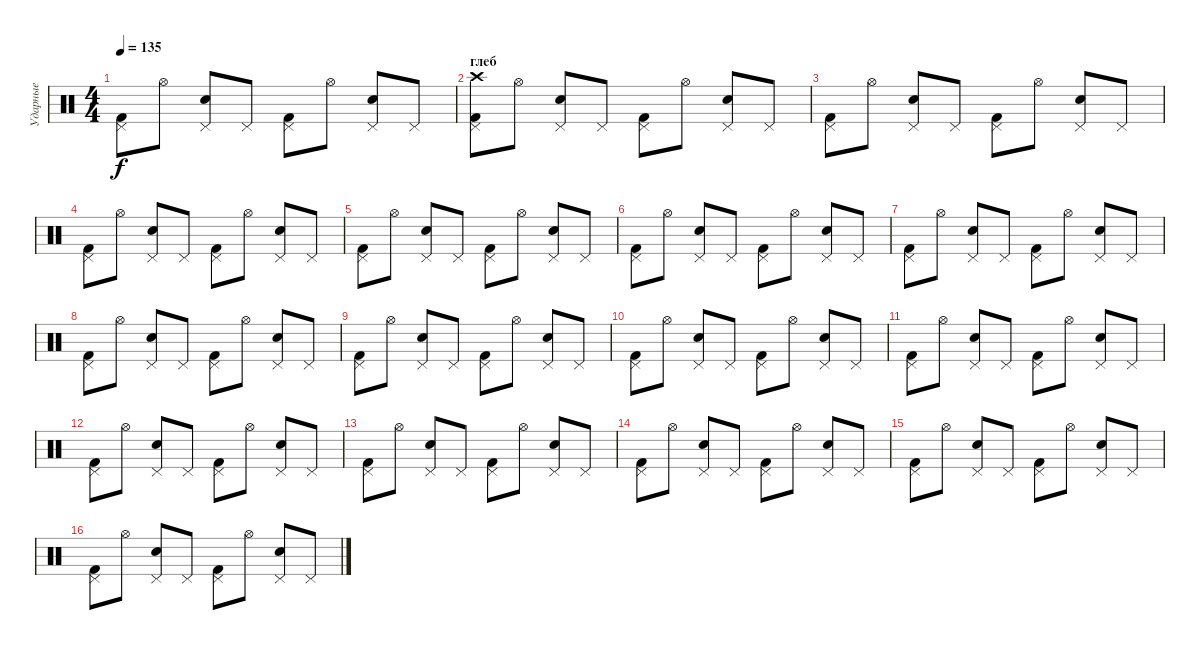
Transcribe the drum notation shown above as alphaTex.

\track ("Ударные" "Ударные") {instrument percussion}
\staff {score}
\articulation defaults
\ts (4 4)
\tempo 135
\clef neutral
\ks c
("Pedal Hi-Hat (hit)" "Kick (hit) 2").8{dy f} "Hi-Hat (open)".8 ("Pedal Hi-Hat (hit)" "Snare (hit) 2").8 "Pedal Hi-Hat (hit)".8 ("Pedal Hi-Hat (hit)" "Kick (hit) 2").8 "Hi-Hat (open)".8 ("Pedal Hi-Hat (hit)" "Snare (hit) 2").8 "Pedal Hi-Hat (hit)".8 |
\section ("" "глеб")
("Pedal Hi-Hat (hit)" "Kick (hit) 2" "Crash high (hit)").8 "Hi-Hat (open)".8 ("Pedal Hi-Hat (hit)" "Snare (hit) 2").8 "Pedal Hi-Hat (hit)".8 ("Pedal Hi-Hat (hit)" "Kick (hit) 2").8 "Hi-Hat (open)".8 ("Pedal Hi-Hat (hit)" "Snare (hit) 2").8 "Pedal Hi-Hat (hit)".8 |
("Pedal Hi-Hat (hit)" "Kick (hit) 2").8 "Hi-Hat (open)".8 ("Pedal Hi-Hat (hit)" "Snare (hit) 2").8 "Pedal Hi-Hat (hit)".8 ("Pedal Hi-Hat (hit)" "Kick (hit) 2").8 "Hi-Hat (open)".8 ("Pedal Hi-Hat (hit)" "Snare (hit) 2").8 "Pedal Hi-Hat (hit)".8 |
("Pedal Hi-Hat (hit)" "Kick (hit) 2").8 "Hi-Hat (open)".8 ("Pedal Hi-Hat (hit)" "Snare (hit) 2").8 "Pedal Hi-Hat (hit)".8 ("Pedal Hi-Hat (hit)" "Kick (hit) 2").8 "Hi-Hat (open)".8 ("Pedal Hi-Hat (hit)" "Snare (hit) 2").8 "Pedal Hi-Hat (hit)".8 |
("Pedal Hi-Hat (hit)" "Kick (hit) 2").8 "Hi-Hat (open)".8 ("Pedal Hi-Hat (hit)" "Snare (hit) 2").8 "Pedal Hi-Hat (hit)".8 ("Pedal Hi-Hat (hit)" "Kick (hit) 2").8 "Hi-Hat (open)".8 ("Pedal Hi-Hat (hit)" "Snare (hit) 2").8 "Pedal Hi-Hat (hit)".8 |
("Pedal Hi-Hat (hit)" "Kick (hit) 2").8 "Hi-Hat (open)".8 ("Pedal Hi-Hat (hit)" "Snare (hit) 2").8 "Pedal Hi-Hat (hit)".8 ("Pedal Hi-Hat (hit)" "Kick (hit) 2").8 "Hi-Hat (open)".8 ("Pedal Hi-Hat (hit)" "Snare (hit) 2").8 "Pedal Hi-Hat (hit)".8 |
("Pedal Hi-Hat (hit)" "Kick (hit) 2").8 "Hi-Hat (open)".8 ("Pedal Hi-Hat (hit)" "Snare (hit) 2").8 "Pedal Hi-Hat (hit)".8 ("Pedal Hi-Hat (hit)" "Kick (hit) 2").8 "Hi-Hat (open)".8 ("Pedal Hi-Hat (hit)" "Snare (hit) 2").8 "Pedal Hi-Hat (hit)".8 |
("Pedal Hi-Hat (hit)" "Kick (hit) 2").8 "Hi-Hat (open)".8 ("Pedal Hi-Hat (hit)" "Snare (hit) 2").8 "Pedal Hi-Hat (hit)".8 ("Pedal Hi-Hat (hit)" "Kick (hit) 2").8 "Hi-Hat (open)".8 ("Pedal Hi-Hat (hit)" "Snare (hit) 2").8 "Pedal Hi-Hat (hit)".8 |
("Pedal Hi-Hat (hit)" "Kick (hit) 2").8 "Hi-Hat (open)".8 ("Pedal Hi-Hat (hit)" "Snare (hit) 2").8 "Pedal Hi-Hat (hit)".8 ("Pedal Hi-Hat (hit)" "Kick (hit) 2").8 "Hi-Hat (open)".8 ("Pedal Hi-Hat (hit)" "Snare (hit) 2").8 "Pedal Hi-Hat (hit)".8 |
("Pedal Hi-Hat (hit)" "Kick (hit) 2").8 "Hi-Hat (open)".8 ("Pedal Hi-Hat (hit)" "Snare (hit) 2").8 "Pedal Hi-Hat (hit)".8 ("Pedal Hi-Hat (hit)" "Kick (hit) 2").8 "Hi-Hat (open)".8 ("Pedal Hi-Hat (hit)" "Snare (hit) 2").8 "Pedal Hi-Hat (hit)".8 |
("Pedal Hi-Hat (hit)" "Kick (hit) 2").8 "Hi-Hat (open)".8 ("Pedal Hi-Hat (hit)" "Snare (hit) 2").8 "Pedal Hi-Hat (hit)".8 ("Pedal Hi-Hat (hit)" "Kick (hit) 2").8 "Hi-Hat (open)".8 ("Pedal Hi-Hat (hit)" "Snare (hit) 2").8 "Pedal Hi-Hat (hit)".8 |
("Pedal Hi-Hat (hit)" "Kick (hit) 2").8 "Hi-Hat (open)".8 ("Pedal Hi-Hat (hit)" "Snare (hit) 2").8 "Pedal Hi-Hat (hit)".8 ("Pedal Hi-Hat (hit)" "Kick (hit) 2").8 "Hi-Hat (open)".8 ("Pedal Hi-Hat (hit)" "Snare (hit) 2").8 "Pedal Hi-Hat (hit)".8 |
("Pedal Hi-Hat (hit)" "Kick (hit) 2").8 "Hi-Hat (open)".8 ("Pedal Hi-Hat (hit)" "Snare (hit) 2").8 "Pedal Hi-Hat (hit)".8 ("Pedal Hi-Hat (hit)" "Kick (hit) 2").8 "Hi-Hat (open)".8 ("Pedal Hi-Hat (hit)" "Snare (hit) 2").8 "Pedal Hi-Hat (hit)".8 |
("Pedal Hi-Hat (hit)" "Kick (hit) 2").8 "Hi-Hat (open)".8 ("Pedal Hi-Hat (hit)" "Snare (hit) 2").8 "Pedal Hi-Hat (hit)".8 ("Pedal Hi-Hat (hit)" "Kick (hit) 2").8 "Hi-Hat (open)".8 ("Pedal Hi-Hat (hit)" "Snare (hit) 2").8 "Pedal Hi-Hat (hit)".8 |
("Pedal Hi-Hat (hit)" "Kick (hit) 2").8 "Hi-Hat (open)".8 ("Pedal Hi-Hat (hit)" "Snare (hit) 2").8 "Pedal Hi-Hat (hit)".8 ("Pedal Hi-Hat (hit)" "Kick (hit) 2").8 "Hi-Hat (open)".8 ("Pedal Hi-Hat (hit)" "Snare (hit) 2").8 "Pedal Hi-Hat (hit)".8 |
("Pedal Hi-Hat (hit)" "Kick (hit) 2").8 "Hi-Hat (open)".8 ("Pedal Hi-Hat (hit)" "Snare (hit) 2").8 "Pedal Hi-Hat (hit)".8 ("Pedal Hi-Hat (hit)" "Kick (hit) 2").8 "Hi-Hat (open)".8 ("Pedal Hi-Hat (hit)" "Snare (hit) 2").8 "Pedal Hi-Hat (hit)".8
